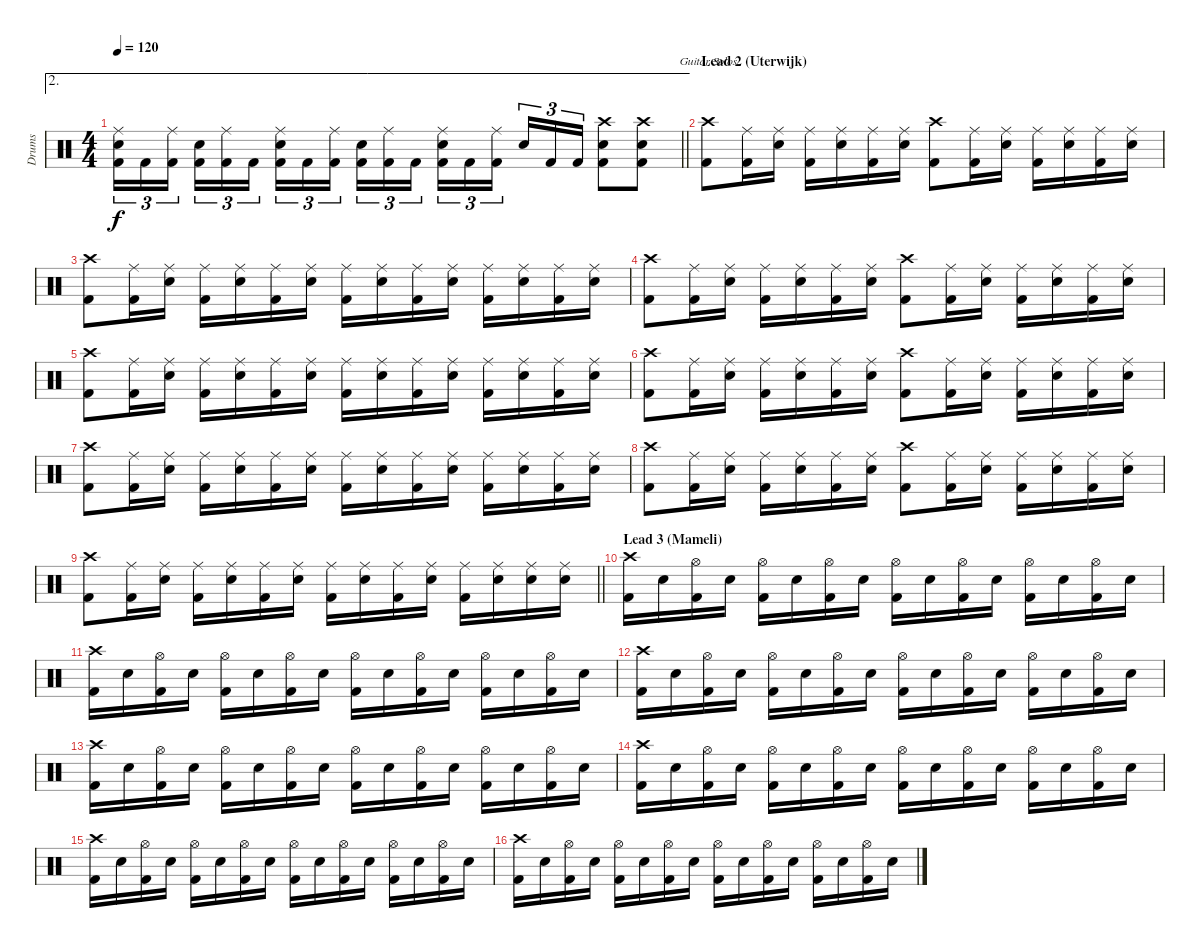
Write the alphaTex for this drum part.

\track ("Drums" "Drums") {instrument percussion}
\staff {score}
\articulation defaults
\chord ("Guitar Solos")
\ae 2
\ts (4 4)
\tempo 120
\clef neutral
\barLineRight lightlight
\ks c
("Ride (middle)" "Snare (hit) 2" "Kick (hit) 2").16{tu (3 2) dy f} "Kick (hit) 2".16{tu (3 2)} ("Ride (middle)" "Kick (hit) 2").16{tu (3 2)} ("Snare (hit) 2" "Kick (hit) 2").16{tu (3 2)} ("Ride (middle)" "Kick (hit) 2").16{tu (3 2)} "Kick (hit) 2".16{tu (3 2)} ("Ride (middle)" "Snare (hit) 2" "Kick (hit) 2").16{tu (3 2)} "Kick (hit) 2".16{tu (3 2)} ("Ride (middle)" "Kick (hit) 2").16{tu (3 2)} ("Snare (hit) 2" "Kick (hit) 2").16{tu (3 2)} ("Ride (middle)" "Kick (hit) 2").16{tu (3 2)} "Kick (hit) 2".16{tu (3 2)} ("Ride (middle)" "Snare (hit) 2" "Kick (hit) 2").16{tu (3 2)} "Kick (hit) 2".16{tu (3 2)} ("Ride (middle)" "Kick (hit) 2").16{tu (3 2)} "Snare (hit) 2".16{tu (3 2)} "Kick (hit) 2".16{tu (3 2)} "Kick (hit) 2".16{tu (3 2)} ("Crash high (hit)" "Snare (hit) 2" "Kick (hit) 2").8 ("Crash high (hit)" "Snare (hit) 2" "Kick (hit) 2").8 |
\section ("" "Lead 2 (Uterwijk)")
("Crash high (hit)" "Kick (hit) 2").8{ch "Guitar Solos"} ("Ride (middle)" "Kick (hit) 2").16 ("Ride (middle)" "Snare (hit) 2").16 ("Ride (middle)" "Kick (hit) 2").16 ("Ride (middle)" "Snare (hit) 2").16 ("Ride (middle)" "Kick (hit) 2").16 ("Ride (middle)" "Snare (hit) 2").16 ("Crash high (hit)" "Kick (hit) 2").8 ("Ride (middle)" "Kick (hit) 2").16 ("Ride (middle)" "Snare (hit) 2").16 ("Ride (middle)" "Kick (hit) 2").16 ("Ride (middle)" "Snare (hit) 2").16 ("Ride (middle)" "Kick (hit) 2").16 ("Ride (middle)" "Snare (hit) 2").16 |
("Crash high (hit)" "Kick (hit) 2").8 ("Ride (middle)" "Kick (hit) 2").16 ("Ride (middle)" "Snare (hit) 2").16 ("Ride (middle)" "Kick (hit) 2").16 ("Ride (middle)" "Snare (hit) 2").16 ("Ride (middle)" "Kick (hit) 2").16 ("Ride (middle)" "Snare (hit) 2").16 ("Ride (middle)" "Kick (hit) 2").16 ("Ride (middle)" "Snare (hit) 2").16 ("Ride (middle)" "Kick (hit) 2").16 ("Ride (middle)" "Snare (hit) 2").16 ("Ride (middle)" "Kick (hit) 2").16 ("Ride (middle)" "Snare (hit) 2").16 ("Ride (middle)" "Kick (hit) 2").16 ("Ride (middle)" "Snare (hit) 2").16 |
("Crash high (hit)" "Kick (hit) 2").8 ("Ride (middle)" "Kick (hit) 2").16 ("Ride (middle)" "Snare (hit) 2").16 ("Ride (middle)" "Kick (hit) 2").16 ("Ride (middle)" "Snare (hit) 2").16 ("Ride (middle)" "Kick (hit) 2").16 ("Ride (middle)" "Snare (hit) 2").16 ("Crash high (hit)" "Kick (hit) 2").8 ("Ride (middle)" "Kick (hit) 2").16 ("Ride (middle)" "Snare (hit) 2").16 ("Ride (middle)" "Kick (hit) 2").16 ("Ride (middle)" "Snare (hit) 2").16 ("Ride (middle)" "Kick (hit) 2").16 ("Ride (middle)" "Snare (hit) 2").16 |
("Crash high (hit)" "Kick (hit) 2").8 ("Ride (middle)" "Kick (hit) 2").16 ("Ride (middle)" "Snare (hit) 2").16 ("Ride (middle)" "Kick (hit) 2").16 ("Ride (middle)" "Snare (hit) 2").16 ("Ride (middle)" "Kick (hit) 2").16 ("Ride (middle)" "Snare (hit) 2").16 ("Ride (middle)" "Kick (hit) 2").16 ("Ride (middle)" "Snare (hit) 2").16 ("Ride (middle)" "Kick (hit) 2").16 ("Ride (middle)" "Snare (hit) 2").16 ("Ride (middle)" "Kick (hit) 2").16 ("Ride (middle)" "Snare (hit) 2").16 ("Ride (middle)" "Kick (hit) 2").16 ("Ride (middle)" "Snare (hit) 2").16 |
("Crash high (hit)" "Kick (hit) 2").8 ("Ride (middle)" "Kick (hit) 2").16 ("Ride (middle)" "Snare (hit) 2").16 ("Ride (middle)" "Kick (hit) 2").16 ("Ride (middle)" "Snare (hit) 2").16 ("Ride (middle)" "Kick (hit) 2").16 ("Ride (middle)" "Snare (hit) 2").16 ("Crash high (hit)" "Kick (hit) 2").8 ("Ride (middle)" "Kick (hit) 2").16 ("Ride (middle)" "Snare (hit) 2").16 ("Ride (middle)" "Kick (hit) 2").16 ("Ride (middle)" "Snare (hit) 2").16 ("Ride (middle)" "Kick (hit) 2").16 ("Ride (middle)" "Snare (hit) 2").16 |
("Crash high (hit)" "Kick (hit) 2").8 ("Ride (middle)" "Kick (hit) 2").16 ("Ride (middle)" "Snare (hit) 2").16 ("Ride (middle)" "Kick (hit) 2").16 ("Ride (middle)" "Snare (hit) 2").16 ("Ride (middle)" "Kick (hit) 2").16 ("Ride (middle)" "Snare (hit) 2").16 ("Ride (middle)" "Kick (hit) 2").16 ("Ride (middle)" "Snare (hit) 2").16 ("Ride (middle)" "Kick (hit) 2").16 ("Ride (middle)" "Snare (hit) 2").16 ("Ride (middle)" "Kick (hit) 2").16 ("Ride (middle)" "Snare (hit) 2").16 ("Ride (middle)" "Kick (hit) 2").16 ("Ride (middle)" "Snare (hit) 2").16 |
("Crash high (hit)" "Kick (hit) 2").8 ("Ride (middle)" "Kick (hit) 2").16 ("Ride (middle)" "Snare (hit) 2").16 ("Ride (middle)" "Kick (hit) 2").16 ("Ride (middle)" "Snare (hit) 2").16 ("Ride (middle)" "Kick (hit) 2").16 ("Ride (middle)" "Snare (hit) 2").16 ("Crash high (hit)" "Kick (hit) 2").8 ("Ride (middle)" "Kick (hit) 2").16 ("Ride (middle)" "Snare (hit) 2").16 ("Ride (middle)" "Kick (hit) 2").16 ("Ride (middle)" "Snare (hit) 2").16 ("Ride (middle)" "Kick (hit) 2").16 ("Ride (middle)" "Snare (hit) 2").16 |
\barLineRight lightlight
("Crash high (hit)" "Kick (hit) 2").8 ("Ride (middle)" "Kick (hit) 2").16 ("Ride (middle)" "Snare (hit) 2").16 ("Ride (middle)" "Kick (hit) 2").16 ("Ride (middle)" "Snare (hit) 2").16 ("Ride (middle)" "Kick (hit) 2").16 ("Ride (middle)" "Snare (hit) 2").16 ("Ride (middle)" "Kick (hit) 2").16 ("Ride (middle)" "Snare (hit) 2").16 ("Ride (middle)" "Kick (hit) 2").16 ("Ride (middle)" "Snare (hit) 2").16 ("Ride (middle)" "Kick (hit) 2").16 ("Ride (middle)" "Snare (hit) 2").16 ("Ride (middle)" "Snare (hit) 2").16 ("Ride (middle)" "Snare (hit) 2").16 |
\section ("" "Lead 3 (Mameli)")
("Crash high (hit)" "Kick (hit) 2").16 "Snare (hit) 2".16 ("Hi-Hat (open)" "Kick (hit) 2").16 "Snare (hit) 2".16 ("Hi-Hat (open)" "Kick (hit) 2").16 "Snare (hit) 2".16 ("Hi-Hat (open)" "Kick (hit) 2").16 "Snare (hit) 2".16 ("Hi-Hat (open)" "Kick (hit) 2").16 "Snare (hit) 2".16 ("Hi-Hat (open)" "Kick (hit) 2").16 "Snare (hit) 2".16 ("Hi-Hat (open)" "Kick (hit) 2").16 "Snare (hit) 2".16 ("Hi-Hat (open)" "Kick (hit) 2").16 "Snare (hit) 2".16 |
("Crash high (hit)" "Kick (hit) 2").16 "Snare (hit) 2".16 ("Hi-Hat (open)" "Kick (hit) 2").16 "Snare (hit) 2".16 ("Hi-Hat (open)" "Kick (hit) 2").16 "Snare (hit) 2".16 ("Hi-Hat (open)" "Kick (hit) 2").16 "Snare (hit) 2".16 ("Hi-Hat (open)" "Kick (hit) 2").16 "Snare (hit) 2".16 ("Hi-Hat (open)" "Kick (hit) 2").16 "Snare (hit) 2".16 ("Hi-Hat (open)" "Kick (hit) 2").16 "Snare (hit) 2".16 ("Hi-Hat (open)" "Kick (hit) 2").16 "Snare (hit) 2".16 |
("Crash high (hit)" "Kick (hit) 2").16 "Snare (hit) 2".16 ("Hi-Hat (open)" "Kick (hit) 2").16 "Snare (hit) 2".16 ("Hi-Hat (open)" "Kick (hit) 2").16 "Snare (hit) 2".16 ("Hi-Hat (open)" "Kick (hit) 2").16 "Snare (hit) 2".16 ("Hi-Hat (open)" "Kick (hit) 2").16 "Snare (hit) 2".16 ("Hi-Hat (open)" "Kick (hit) 2").16 "Snare (hit) 2".16 ("Hi-Hat (open)" "Kick (hit) 2").16 "Snare (hit) 2".16 ("Hi-Hat (open)" "Kick (hit) 2").16 "Snare (hit) 2".16 |
("Crash high (hit)" "Kick (hit) 2").16 "Snare (hit) 2".16 ("Hi-Hat (open)" "Kick (hit) 2").16 "Snare (hit) 2".16 ("Hi-Hat (open)" "Kick (hit) 2").16 "Snare (hit) 2".16 ("Hi-Hat (open)" "Kick (hit) 2").16 "Snare (hit) 2".16 ("Hi-Hat (open)" "Kick (hit) 2").16 "Snare (hit) 2".16 ("Hi-Hat (open)" "Kick (hit) 2").16 "Snare (hit) 2".16 ("Hi-Hat (open)" "Kick (hit) 2").16 "Snare (hit) 2".16 ("Hi-Hat (open)" "Kick (hit) 2").16 "Snare (hit) 2".16 |
("Crash high (hit)" "Kick (hit) 2").16 "Snare (hit) 2".16 ("Hi-Hat (open)" "Kick (hit) 2").16 "Snare (hit) 2".16 ("Hi-Hat (open)" "Kick (hit) 2").16 "Snare (hit) 2".16 ("Hi-Hat (open)" "Kick (hit) 2").16 "Snare (hit) 2".16 ("Hi-Hat (open)" "Kick (hit) 2").16 "Snare (hit) 2".16 ("Hi-Hat (open)" "Kick (hit) 2").16 "Snare (hit) 2".16 ("Hi-Hat (open)" "Kick (hit) 2").16 "Snare (hit) 2".16 ("Hi-Hat (open)" "Kick (hit) 2").16 "Snare (hit) 2".16 |
("Crash high (hit)" "Kick (hit) 2").16 "Snare (hit) 2".16 ("Hi-Hat (open)" "Kick (hit) 2").16 "Snare (hit) 2".16 ("Hi-Hat (open)" "Kick (hit) 2").16 "Snare (hit) 2".16 ("Hi-Hat (open)" "Kick (hit) 2").16 "Snare (hit) 2".16 ("Hi-Hat (open)" "Kick (hit) 2").16 "Snare (hit) 2".16 ("Hi-Hat (open)" "Kick (hit) 2").16 "Snare (hit) 2".16 ("Hi-Hat (open)" "Kick (hit) 2").16 "Snare (hit) 2".16 ("Hi-Hat (open)" "Kick (hit) 2").16 "Snare (hit) 2".16 |
("Crash high (hit)" "Kick (hit) 2").16 "Snare (hit) 2".16 ("Hi-Hat (open)" "Kick (hit) 2").16 "Snare (hit) 2".16 ("Hi-Hat (open)" "Kick (hit) 2").16 "Snare (hit) 2".16 ("Hi-Hat (open)" "Kick (hit) 2").16 "Snare (hit) 2".16 ("Hi-Hat (open)" "Kick (hit) 2").16 "Snare (hit) 2".16 ("Hi-Hat (open)" "Kick (hit) 2").16 "Snare (hit) 2".16 ("Hi-Hat (open)" "Kick (hit) 2").16 "Snare (hit) 2".16 ("Hi-Hat (open)" "Kick (hit) 2").16 "Snare (hit) 2".16
